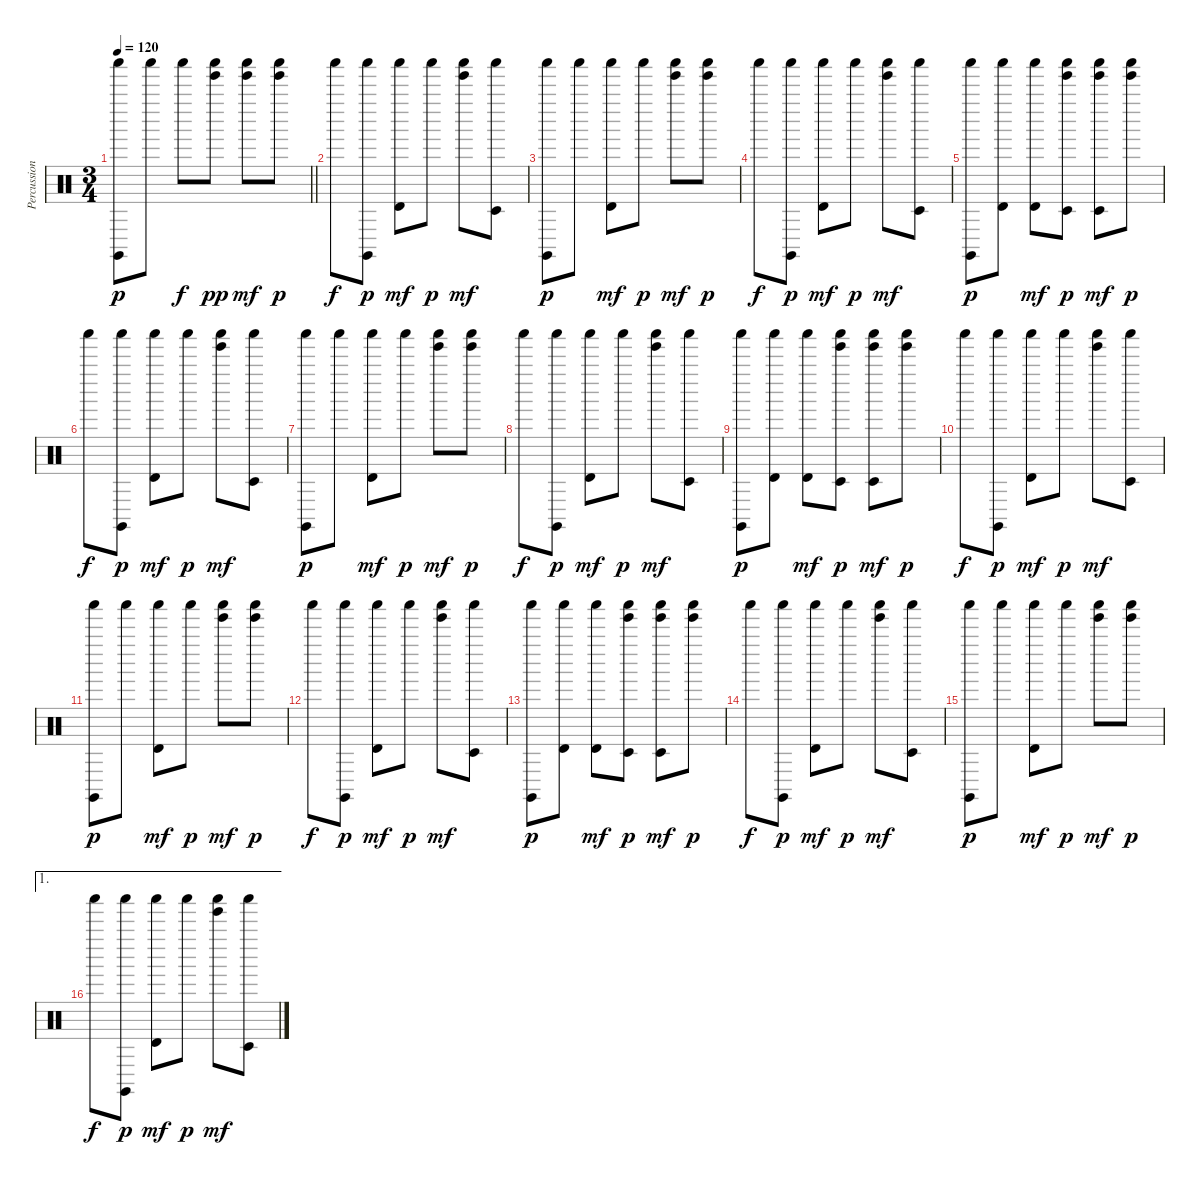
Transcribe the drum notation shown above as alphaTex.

\track ("Percussion" "Percussion") {instrument percussion}
\staff {score}
\articulation defaults
\ts (3 4)
\tempo 120
\clef neutral
\barLineRight lightlight
\ks c
("Shaker (hit)" "Claves (hit)").8{dy p} "Shaker (hit)".8 "Shaker (hit)".8{dy f} ("Shaker (hit)" "Tinkle Bell (hit)").8{dy pp} ("Shaker (hit)" "Tinkle Bell (hit)").8{dy mf} ("Shaker (hit)" "Tinkle Bell (hit)").8{dy p} |
"Shaker (hit)".8{dy f} ("Shaker (hit)" "Claves (hit)").8{dy p} ("Shaker (hit)" "Timbale high (hit)").8{dy mf} "Shaker (hit)".8{dy p} ("Shaker (hit)" "Tinkle Bell (hit)").8{dy mf} ("Shaker (hit)" "Timbale low (hit)").8 |
("Shaker (hit)" "Claves (hit)").8{dy p} "Shaker (hit)".8 ("Shaker (hit)" "Timbale high (hit)").8{dy mf} "Shaker (hit)".8{dy p} ("Shaker (hit)" "Tinkle Bell (hit)").8{dy mf} ("Shaker (hit)" "Tinkle Bell (hit)").8{dy p} |
"Shaker (hit)".8{dy f} ("Shaker (hit)" "Claves (hit)").8{dy p} ("Shaker (hit)" "Timbale high (hit)").8{dy mf} "Shaker (hit)".8{dy p} ("Shaker (hit)" "Tinkle Bell (hit)").8{dy mf} ("Shaker (hit)" "Timbale low (hit)").8 |
("Shaker (hit)" "Claves (hit)").8{dy p} ("Shaker (hit)" "Timbale high (hit)").8 ("Shaker (hit)" "Timbale high (hit)").8{dy mf} ("Shaker (hit)" "Tinkle Bell (hit)" "Timbale low (hit)").8{dy p} ("Shaker (hit)" "Tinkle Bell (hit)" "Timbale low (hit)").8{dy mf} ("Shaker (hit)" "Tinkle Bell (hit)").8{dy p} |
"Shaker (hit)".8{dy f} ("Shaker (hit)" "Claves (hit)").8{dy p} ("Shaker (hit)" "Timbale high (hit)").8{dy mf} "Shaker (hit)".8{dy p} ("Shaker (hit)" "Tinkle Bell (hit)").8{dy mf} ("Shaker (hit)" "Timbale low (hit)").8 |
("Shaker (hit)" "Claves (hit)").8{dy p} "Shaker (hit)".8 ("Shaker (hit)" "Timbale high (hit)").8{dy mf} "Shaker (hit)".8{dy p} ("Shaker (hit)" "Tinkle Bell (hit)").8{dy mf} ("Shaker (hit)" "Tinkle Bell (hit)").8{dy p} |
"Shaker (hit)".8{dy f} ("Shaker (hit)" "Claves (hit)").8{dy p} ("Shaker (hit)" "Timbale high (hit)").8{dy mf} "Shaker (hit)".8{dy p} ("Shaker (hit)" "Tinkle Bell (hit)").8{dy mf} ("Shaker (hit)" "Timbale low (hit)").8 |
("Shaker (hit)" "Claves (hit)").8{dy p} ("Shaker (hit)" "Timbale high (hit)").8 ("Shaker (hit)" "Timbale high (hit)").8{dy mf} ("Shaker (hit)" "Tinkle Bell (hit)" "Timbale low (hit)").8{dy p} ("Shaker (hit)" "Tinkle Bell (hit)" "Timbale low (hit)").8{dy mf} ("Shaker (hit)" "Tinkle Bell (hit)").8{dy p} |
"Shaker (hit)".8{dy f} ("Shaker (hit)" "Claves (hit)").8{dy p} ("Shaker (hit)" "Timbale high (hit)").8{dy mf} "Shaker (hit)".8{dy p} ("Shaker (hit)" "Tinkle Bell (hit)").8{dy mf} ("Shaker (hit)" "Timbale low (hit)").8 |
("Shaker (hit)" "Claves (hit)").8{dy p} "Shaker (hit)".8 ("Shaker (hit)" "Timbale high (hit)").8{dy mf} "Shaker (hit)".8{dy p} ("Shaker (hit)" "Tinkle Bell (hit)").8{dy mf} ("Shaker (hit)" "Tinkle Bell (hit)").8{dy p} |
"Shaker (hit)".8{dy f} ("Shaker (hit)" "Claves (hit)").8{dy p} ("Shaker (hit)" "Timbale high (hit)").8{dy mf} "Shaker (hit)".8{dy p} ("Shaker (hit)" "Tinkle Bell (hit)").8{dy mf} ("Shaker (hit)" "Timbale low (hit)").8 |
("Shaker (hit)" "Claves (hit)").8{dy p} ("Shaker (hit)" "Timbale high (hit)").8 ("Shaker (hit)" "Timbale high (hit)").8{dy mf} ("Shaker (hit)" "Tinkle Bell (hit)" "Timbale low (hit)").8{dy p} ("Shaker (hit)" "Tinkle Bell (hit)" "Timbale low (hit)").8{dy mf} ("Shaker (hit)" "Tinkle Bell (hit)").8{dy p} |
"Shaker (hit)".8{dy f} ("Shaker (hit)" "Claves (hit)").8{dy p} ("Shaker (hit)" "Timbale high (hit)").8{dy mf} "Shaker (hit)".8{dy p} ("Shaker (hit)" "Tinkle Bell (hit)").8{dy mf} ("Shaker (hit)" "Timbale low (hit)").8 |
("Shaker (hit)" "Claves (hit)").8{dy p} "Shaker (hit)".8 ("Shaker (hit)" "Timbale high (hit)").8{dy mf} "Shaker (hit)".8{dy p} ("Shaker (hit)" "Tinkle Bell (hit)").8{dy mf} ("Shaker (hit)" "Tinkle Bell (hit)").8{dy p} |
\ae 1 "Shaker (hit)".8{dy f}
("Shaker (hit)" "Claves (hit)").8{dy p} ("Shaker (hit)" "Timbale high (hit)").8{dy mf} "Shaker (hit)".8{dy p} ("Shaker (hit)" "Tinkle Bell (hit)").8{dy mf} ("Shaker (hit)" "Timbale low (hit)").8
